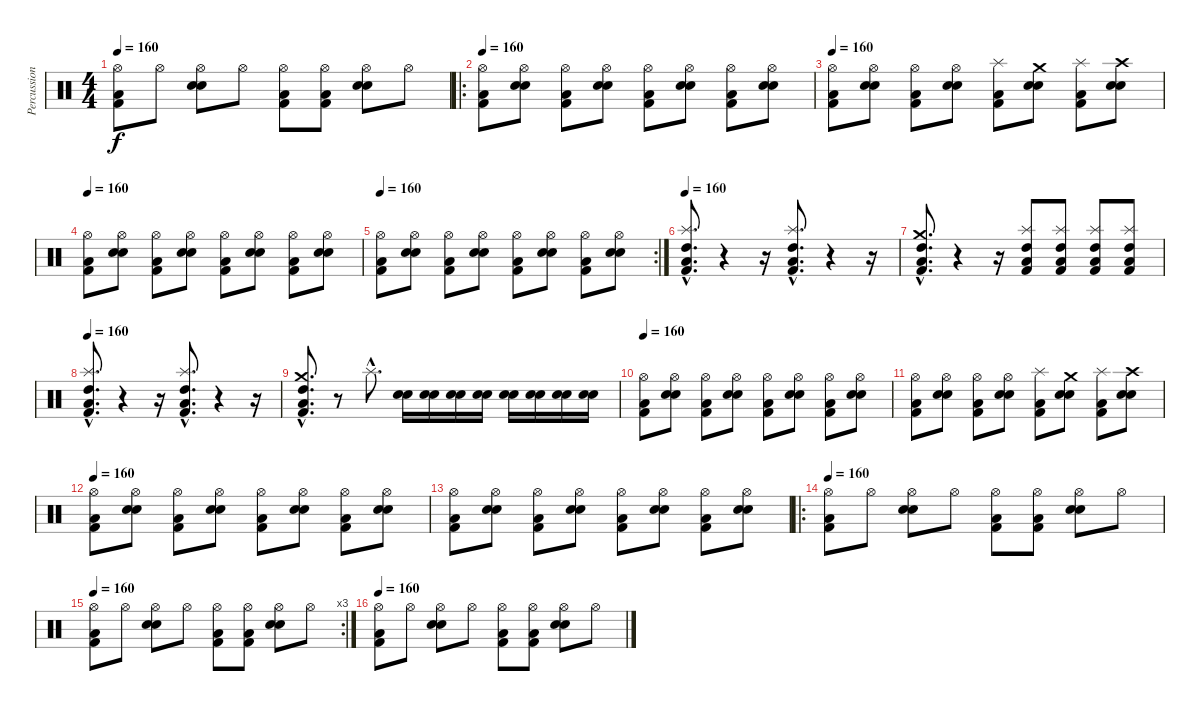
\track ("Percussions" "Percussion") {instrument percussion}
\staff {score}
\articulation defaults
\ts (4 4)
\tempo 160
\clef neutral
\ks c
("Hi-Hat (open)" "Kick (hit) 2" "Low Floor Tom (hit)").8{dy f} "Hi-Hat (open)".8 ("Hi-Hat (open)" "Snare (hit) 2" "Electric Snare (hit)").8 "Hi-Hat (open)".8 ("Hi-Hat (open)" "Kick (hit) 2" "Low Floor Tom (hit)").8 ("Hi-Hat (open)" "Kick (hit) 2" "Low Floor Tom (hit)").8 ("Hi-Hat (open)" "Snare (hit) 2" "Electric Snare (hit)").8 "Hi-Hat (open)".8 |
\ro
\tempo 160
("Hi-Hat (open)" "Kick (hit) 2" "Low Floor Tom (hit)").8 ("Hi-Hat (open)" "Snare (hit) 2" "Electric Snare (hit)").8 ("Hi-Hat (open)" "Kick (hit) 2" "Low Floor Tom (hit)").8 ("Hi-Hat (open)" "Snare (hit) 2" "Electric Snare (hit)").8 ("Hi-Hat (open)" "Kick (hit) 2" "Low Floor Tom (hit)").8 ("Hi-Hat (open)" "Snare (hit) 2" "Electric Snare (hit)").8 ("Hi-Hat (open)" "Kick (hit) 2" "Low Floor Tom (hit)").8 ("Hi-Hat (open)" "Snare (hit) 2" "Electric Snare (hit)").8 |
\tempo 160
("Hi-Hat (open)" "Kick (hit) 2" "Low Floor Tom (hit)").8 ("Hi-Hat (open)" "Snare (hit) 2" "Electric Snare (hit)").8 ("Hi-Hat (open)" "Kick (hit) 2" "Low Floor Tom (hit)").8 ("Hi-Hat (open)" "Snare (hit) 2" "Electric Snare (hit)").8 ("Splash (hit)" "Kick (hit) 2" "Low Floor Tom (hit)").8 ("Crash medium (hit)" "Snare (hit) 2" "Electric Snare (hit)").8 ("Splash (hit)" "Kick (hit) 2" "Low Floor Tom (hit)").8 ("Crash high (hit)" "Snare (hit) 2" "Electric Snare (hit)").8 |
\tempo 160
("Hi-Hat (open)" "Kick (hit) 2" "Low Floor Tom (hit)").8 ("Hi-Hat (open)" "Snare (hit) 2" "Electric Snare (hit)").8 ("Hi-Hat (open)" "Kick (hit) 2" "Low Floor Tom (hit)").8 ("Hi-Hat (open)" "Snare (hit) 2" "Electric Snare (hit)").8 ("Hi-Hat (open)" "Kick (hit) 2" "Low Floor Tom (hit)").8 ("Hi-Hat (open)" "Snare (hit) 2" "Electric Snare (hit)").8 ("Hi-Hat (open)" "Kick (hit) 2" "Low Floor Tom (hit)").8 ("Hi-Hat (open)" "Snare (hit) 2" "Electric Snare (hit)").8 |
\rc 2
\tempo 160
("Hi-Hat (open)" "Kick (hit) 2" "Low Floor Tom (hit)").8 ("Hi-Hat (open)" "Snare (hit) 2" "Electric Snare (hit)").8 ("Hi-Hat (open)" "Kick (hit) 2" "Low Floor Tom (hit)").8 ("Hi-Hat (open)" "Snare (hit) 2" "Electric Snare (hit)").8 ("Hi-Hat (open)" "Kick (hit) 2" "Low Floor Tom (hit)").8 ("Hi-Hat (open)" "Snare (hit) 2" "Electric Snare (hit)").8 ("Hi-Hat (open)" "Kick (hit) 2" "Low Floor Tom (hit)").8 ("Hi-Hat (open)" "Snare (hit) 2" "Electric Snare (hit)").8 |
\tempo 160
("Splash (hit)"{hac} "High Tom (hit)"{hac} "Kick (hit) 2"{hac} "Low Floor Tom (hit)"{hac}).8{d} r.4 r.16 ("Splash (hit)"{hac} "High Tom (hit)"{hac} "Kick (hit) 2"{hac} "Low Floor Tom (hit)"{hac}).8{d} r.4 r.16 |
("Crash medium (hit)"{hac} "High Tom (hit)"{hac} "Kick (hit) 2"{hac} "Low Floor Tom (hit)"{hac}).8{d} r.4 r.16 ("Splash (hit)" "High Tom (hit)" "Kick (hit) 2" "Low Floor Tom (hit)").8 ("Splash (hit)" "High Tom (hit)" "Kick (hit) 2" "Low Floor Tom (hit)").8 ("Splash (hit)" "High Tom (hit)" "Kick (hit) 2" "Low Floor Tom (hit)").8 ("Splash (hit)" "High Tom (hit)" "Kick (hit) 2" "Low Floor Tom (hit)").8 |
\tempo 160
("Splash (hit)"{hac} "High Tom (hit)"{hac} "Kick (hit) 2"{hac} "Low Floor Tom (hit)"{hac}).8{d} r.4 r.16 ("Splash (hit)"{hac} "High Tom (hit)"{hac} "Kick (hit) 2"{hac} "Low Floor Tom (hit)"{hac}).8{d} r.4 r.16 |
("Crash medium (hit)"{hac} "High Tom (hit)"{hac} "Kick (hit) 2"{hac} "Low Floor Tom (hit)"{hac}).8{d} r.8 "Splash (hit)"{hac}.8{d} ("Snare (hit) 2" "Electric Snare (hit)").16 ("Snare (hit) 2" "Electric Snare (hit)").16 ("Snare (hit) 2" "Electric Snare (hit)").16 ("Snare (hit) 2" "Electric Snare (hit)").16 ("Snare (hit) 2" "Electric Snare (hit)").16 ("Snare (hit) 2" "Electric Snare (hit)").16 ("Snare (hit) 2" "Electric Snare (hit)").16 ("Snare (hit) 2" "Electric Snare (hit)").16 |
\tempo 160
("Hi-Hat (open)" "Kick (hit) 2" "Low Floor Tom (hit)").8 ("Hi-Hat (open)" "Snare (hit) 2" "Electric Snare (hit)").8 ("Hi-Hat (open)" "Kick (hit) 2" "Low Floor Tom (hit)").8 ("Hi-Hat (open)" "Snare (hit) 2" "Electric Snare (hit)").8 ("Hi-Hat (open)" "Kick (hit) 2" "Low Floor Tom (hit)").8 ("Hi-Hat (open)" "Snare (hit) 2" "Electric Snare (hit)").8 ("Hi-Hat (open)" "Kick (hit) 2" "Low Floor Tom (hit)").8 ("Hi-Hat (open)" "Snare (hit) 2" "Electric Snare (hit)").8 |
("Hi-Hat (open)" "Kick (hit) 2" "Low Floor Tom (hit)").8 ("Hi-Hat (open)" "Snare (hit) 2" "Electric Snare (hit)").8 ("Hi-Hat (open)" "Kick (hit) 2" "Low Floor Tom (hit)").8 ("Hi-Hat (open)" "Snare (hit) 2" "Electric Snare (hit)").8 ("Splash (hit)" "Kick (hit) 2" "Low Floor Tom (hit)").8 ("Crash medium (hit)" "Snare (hit) 2" "Electric Snare (hit)").8 ("Splash (hit)" "Kick (hit) 2" "Low Floor Tom (hit)").8 ("Crash high (hit)" "Snare (hit) 2" "Electric Snare (hit)").8 |
\tempo 160
("Hi-Hat (open)" "Kick (hit) 2" "Low Floor Tom (hit)").8 ("Hi-Hat (open)" "Snare (hit) 2" "Electric Snare (hit)").8 ("Hi-Hat (open)" "Kick (hit) 2" "Low Floor Tom (hit)").8 ("Hi-Hat (open)" "Snare (hit) 2" "Electric Snare (hit)").8 ("Hi-Hat (open)" "Kick (hit) 2" "Low Floor Tom (hit)").8 ("Hi-Hat (open)" "Snare (hit) 2" "Electric Snare (hit)").8 ("Hi-Hat (open)" "Kick (hit) 2" "Low Floor Tom (hit)").8 ("Hi-Hat (open)" "Snare (hit) 2" "Electric Snare (hit)").8 |
("Hi-Hat (open)" "Kick (hit) 2" "Low Floor Tom (hit)").8 ("Hi-Hat (open)" "Snare (hit) 2" "Electric Snare (hit)").8 ("Hi-Hat (open)" "Kick (hit) 2" "Low Floor Tom (hit)").8 ("Hi-Hat (open)" "Snare (hit) 2" "Electric Snare (hit)").8 ("Hi-Hat (open)" "Kick (hit) 2" "Low Floor Tom (hit)").8 ("Hi-Hat (open)" "Snare (hit) 2" "Electric Snare (hit)").8 ("Hi-Hat (open)" "Kick (hit) 2" "Low Floor Tom (hit)").8 ("Hi-Hat (open)" "Snare (hit) 2" "Electric Snare (hit)").8 |
\ro
\tempo 160
("Hi-Hat (open)" "Kick (hit) 2" "Low Floor Tom (hit)").8 "Hi-Hat (open)".8 ("Hi-Hat (open)" "Snare (hit) 2" "Electric Snare (hit)").8 "Hi-Hat (open)".8 ("Hi-Hat (open)" "Kick (hit) 2" "Low Floor Tom (hit)").8 ("Hi-Hat (open)" "Kick (hit) 2" "Low Floor Tom (hit)").8 ("Hi-Hat (open)" "Snare (hit) 2" "Electric Snare (hit)").8 "Hi-Hat (open)".8 |
\rc 3
\tempo 160
("Hi-Hat (open)" "Kick (hit) 2" "Low Floor Tom (hit)").8 "Hi-Hat (open)".8 ("Hi-Hat (open)" "Snare (hit) 2" "Electric Snare (hit)").8 "Hi-Hat (open)".8 ("Hi-Hat (open)" "Kick (hit) 2" "Low Floor Tom (hit)").8 ("Hi-Hat (open)" "Kick (hit) 2" "Low Floor Tom (hit)").8 ("Hi-Hat (open)" "Snare (hit) 2" "Electric Snare (hit)").8 "Hi-Hat (open)".8 |
\tempo 160
("Hi-Hat (open)" "Kick (hit) 2" "Low Floor Tom (hit)").8 "Hi-Hat (open)".8 ("Hi-Hat (open)" "Snare (hit) 2" "Electric Snare (hit)").8 "Hi-Hat (open)".8 ("Hi-Hat (open)" "Kick (hit) 2" "Low Floor Tom (hit)").8 ("Hi-Hat (open)" "Kick (hit) 2" "Low Floor Tom (hit)").8 ("Hi-Hat (open)" "Snare (hit) 2" "Electric Snare (hit)").8 "Hi-Hat (open)".8
